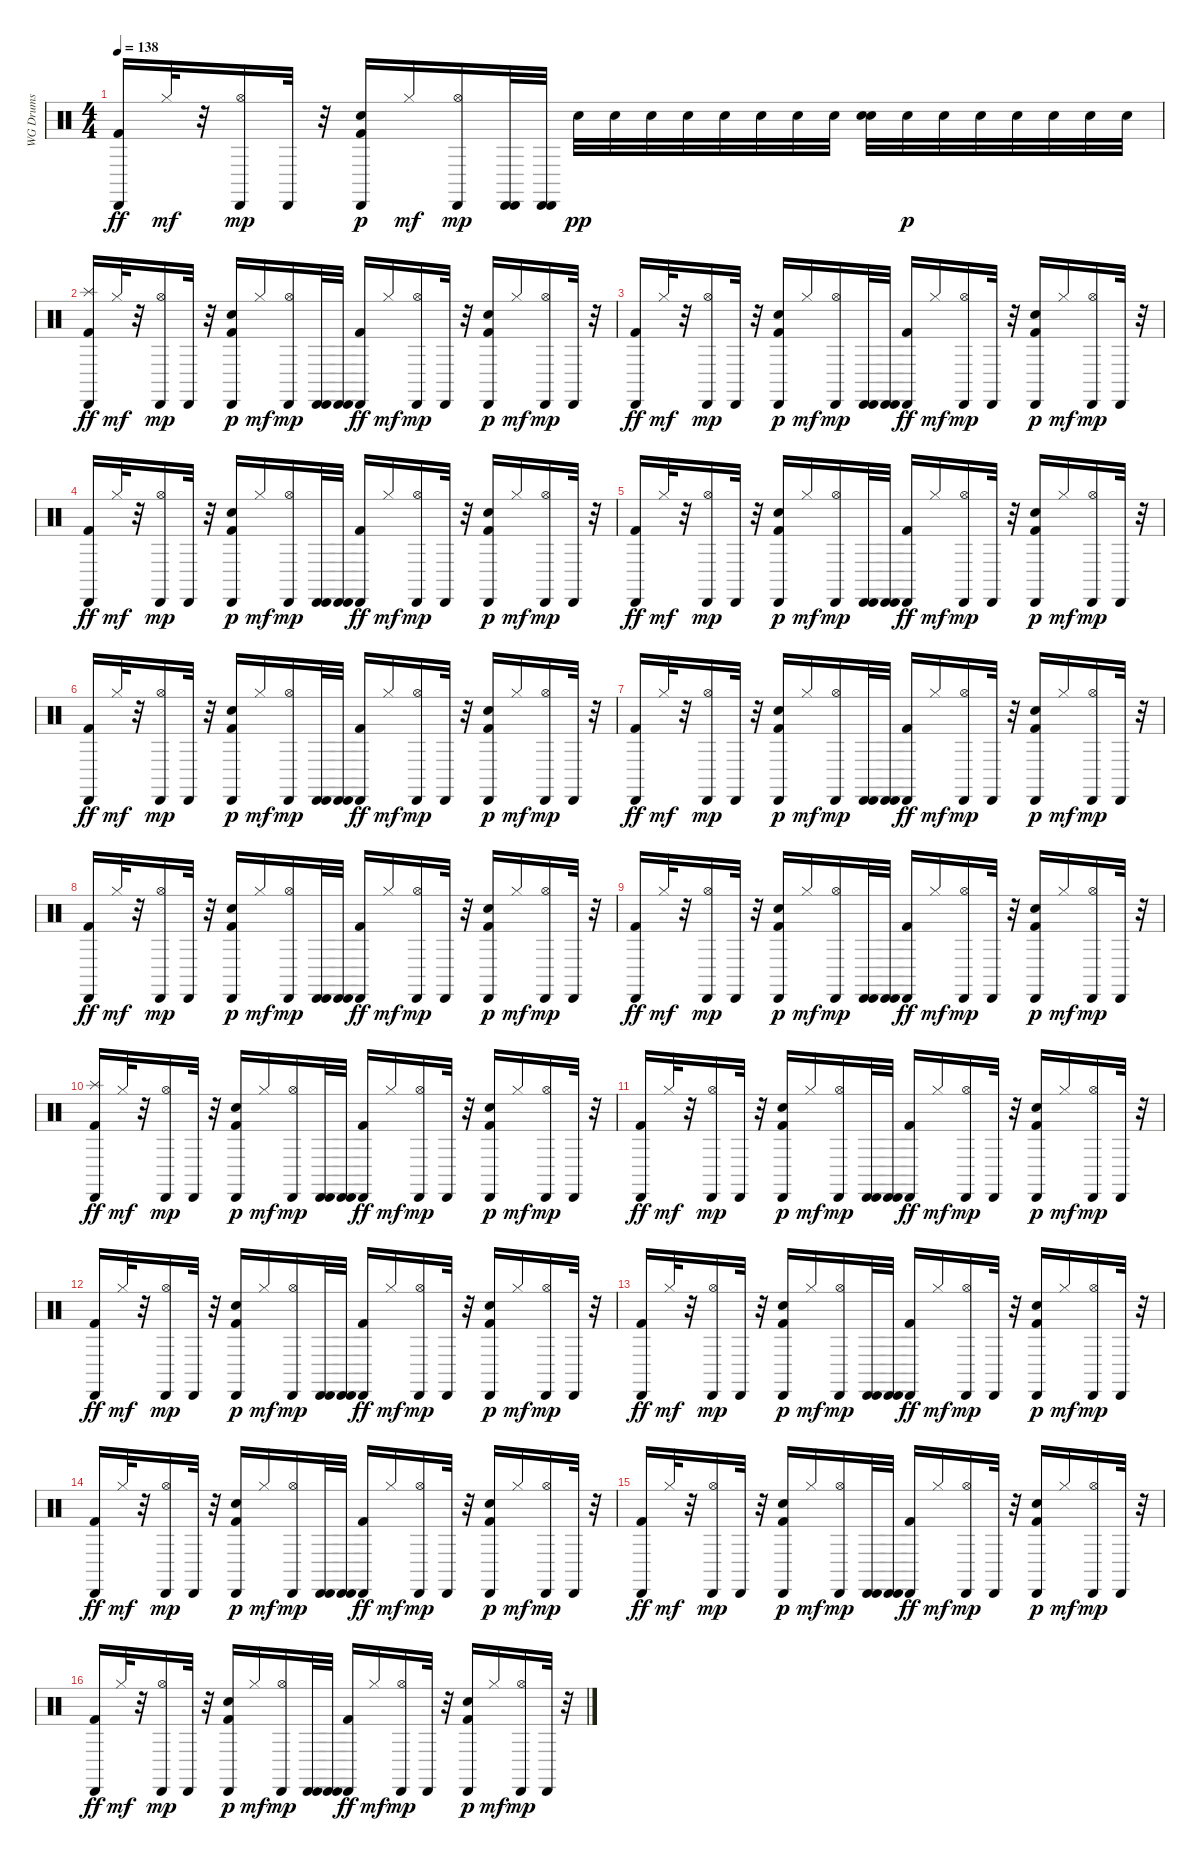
\track ("WG Drums" "WG Drums") {instrument percussion}
\staff {score}
\articulation defaults
\ts (4 4)
\tempo 138
\clef neutral
\ks c
("Cabasa (hit)" "Kick (hit) 2").16{dy ff} "Hi-Hat (closed)".32{dy mf} r.32 ("Cabasa (hit)" "Hi-Hat (open)").16{dy mp} "Cabasa (hit)".32 r.32 ("Cabasa (hit)" "Kick (hit) 2" "Hand Clap (hit)").16{dy p} "Hi-Hat (closed)".16{dy mf} ("Cabasa (hit)" "Hi-Hat (open)").16{dy mp} ("Cabasa (hit)" "Cabasa (hit)").32 ("Cabasa (hit)" "Cabasa (hit)").32 "Electric Snare (hit)".32{dy pp} "Electric Snare (hit)".32 "Electric Snare (hit)".32 "Electric Snare (hit)".32 "Electric Snare (hit)".32 "Electric Snare (hit)".32 "Electric Snare (hit)".32 "Electric Snare (hit)".32 ("Hand Clap (hit)" "Electric Snare (hit)").32 "Electric Snare (hit)".32{dy p} "Electric Snare (hit)".32 "Electric Snare (hit)".32 "Electric Snare (hit)".32 "Electric Snare (hit)".32 "Electric Snare (hit)".32 "Electric Snare (hit)".32 |
("Splash (hit)" "Cabasa (hit)" "Kick (hit) 2").16{dy ff} "Hi-Hat (closed)".32{dy mf} r.32 ("Cabasa (hit)" "Hi-Hat (open)").16{dy mp} "Cabasa (hit)".32 r.32 ("Cabasa (hit)" "Kick (hit) 2" "Hand Clap (hit)").16{dy p} "Hi-Hat (closed)".16{dy mf} ("Cabasa (hit)" "Hi-Hat (open)").16{dy mp} ("Cabasa (hit)" "Cabasa (hit)").32 ("Cabasa (hit)" "Cabasa (hit)").32 ("Cabasa (hit)" "Kick (hit) 2").16{dy ff} "Hi-Hat (closed)".16{dy mf} ("Cabasa (hit)" "Hi-Hat (open)").16{dy mp} "Cabasa (hit)".32 r.32 ("Cabasa (hit)" "Kick (hit) 2" "Hand Clap (hit)").16{dy p} "Hi-Hat (closed)".16{dy mf} ("Cabasa (hit)" "Hi-Hat (open)").16{dy mp} "Cabasa (hit)".32 r.32 |
("Cabasa (hit)" "Kick (hit) 2").16{dy ff} "Hi-Hat (closed)".32{dy mf} r.32 ("Cabasa (hit)" "Hi-Hat (open)").16{dy mp} "Cabasa (hit)".32 r.32 ("Cabasa (hit)" "Kick (hit) 2" "Hand Clap (hit)").16{dy p} "Hi-Hat (closed)".16{dy mf} ("Cabasa (hit)" "Hi-Hat (open)").16{dy mp} ("Cabasa (hit)" "Cabasa (hit)").32 ("Cabasa (hit)" "Cabasa (hit)").32 ("Cabasa (hit)" "Kick (hit) 2").16{dy ff} "Hi-Hat (closed)".16{dy mf} ("Cabasa (hit)" "Hi-Hat (open)").16{dy mp} "Cabasa (hit)".32 r.32 ("Cabasa (hit)" "Kick (hit) 2" "Hand Clap (hit)").16{dy p} "Hi-Hat (closed)".16{dy mf} ("Cabasa (hit)" "Hi-Hat (open)").16{dy mp} "Cabasa (hit)".32 r.32 |
("Cabasa (hit)" "Kick (hit) 2").16{dy ff} "Hi-Hat (closed)".32{dy mf} r.32 ("Cabasa (hit)" "Hi-Hat (open)").16{dy mp} "Cabasa (hit)".32 r.32 ("Cabasa (hit)" "Kick (hit) 2" "Hand Clap (hit)").16{dy p} "Hi-Hat (closed)".16{dy mf} ("Cabasa (hit)" "Hi-Hat (open)").16{dy mp} ("Cabasa (hit)" "Cabasa (hit)").32 ("Cabasa (hit)" "Cabasa (hit)").32 ("Cabasa (hit)" "Kick (hit) 2").16{dy ff} "Hi-Hat (closed)".16{dy mf} ("Cabasa (hit)" "Hi-Hat (open)").16{dy mp} "Cabasa (hit)".32 r.32 ("Cabasa (hit)" "Kick (hit) 2" "Hand Clap (hit)").16{dy p} "Hi-Hat (closed)".16{dy mf} ("Cabasa (hit)" "Hi-Hat (open)").16{dy mp} "Cabasa (hit)".32 r.32 |
("Cabasa (hit)" "Kick (hit) 2").16{dy ff} "Hi-Hat (closed)".32{dy mf} r.32 ("Cabasa (hit)" "Hi-Hat (open)").16{dy mp} "Cabasa (hit)".32 r.32 ("Cabasa (hit)" "Kick (hit) 2" "Hand Clap (hit)").16{dy p} "Hi-Hat (closed)".16{dy mf} ("Cabasa (hit)" "Hi-Hat (open)").16{dy mp} ("Cabasa (hit)" "Cabasa (hit)").32 ("Cabasa (hit)" "Cabasa (hit)").32 ("Cabasa (hit)" "Kick (hit) 2").16{dy ff} "Hi-Hat (closed)".16{dy mf} ("Cabasa (hit)" "Hi-Hat (open)").16{dy mp} "Cabasa (hit)".32 r.32 ("Cabasa (hit)" "Kick (hit) 2" "Hand Clap (hit)").16{dy p} "Hi-Hat (closed)".16{dy mf} ("Cabasa (hit)" "Hi-Hat (open)").16{dy mp} "Cabasa (hit)".32 r.32 |
("Cabasa (hit)" "Kick (hit) 2").16{dy ff} "Hi-Hat (closed)".32{dy mf} r.32 ("Cabasa (hit)" "Hi-Hat (open)").16{dy mp} "Cabasa (hit)".32 r.32 ("Cabasa (hit)" "Kick (hit) 2" "Hand Clap (hit)").16{dy p} "Hi-Hat (closed)".16{dy mf} ("Cabasa (hit)" "Hi-Hat (open)").16{dy mp} ("Cabasa (hit)" "Cabasa (hit)").32 ("Cabasa (hit)" "Cabasa (hit)").32 ("Cabasa (hit)" "Kick (hit) 2").16{dy ff} "Hi-Hat (closed)".16{dy mf} ("Cabasa (hit)" "Hi-Hat (open)").16{dy mp} "Cabasa (hit)".32 r.32 ("Cabasa (hit)" "Kick (hit) 2" "Hand Clap (hit)").16{dy p} "Hi-Hat (closed)".16{dy mf} ("Cabasa (hit)" "Hi-Hat (open)").16{dy mp} "Cabasa (hit)".32 r.32 |
("Cabasa (hit)" "Kick (hit) 2").16{dy ff} "Hi-Hat (closed)".32{dy mf} r.32 ("Cabasa (hit)" "Hi-Hat (open)").16{dy mp} "Cabasa (hit)".32 r.32 ("Cabasa (hit)" "Kick (hit) 2" "Hand Clap (hit)").16{dy p} "Hi-Hat (closed)".16{dy mf} ("Cabasa (hit)" "Hi-Hat (open)").16{dy mp} ("Cabasa (hit)" "Cabasa (hit)").32 ("Cabasa (hit)" "Cabasa (hit)").32 ("Cabasa (hit)" "Kick (hit) 2").16{dy ff} "Hi-Hat (closed)".16{dy mf} ("Cabasa (hit)" "Hi-Hat (open)").16{dy mp} "Cabasa (hit)".32 r.32 ("Cabasa (hit)" "Kick (hit) 2" "Hand Clap (hit)").16{dy p} "Hi-Hat (closed)".16{dy mf} ("Cabasa (hit)" "Hi-Hat (open)").16{dy mp} "Cabasa (hit)".32 r.32 |
("Cabasa (hit)" "Kick (hit) 2").16{dy ff} "Hi-Hat (closed)".32{dy mf} r.32 ("Cabasa (hit)" "Hi-Hat (open)").16{dy mp} "Cabasa (hit)".32 r.32 ("Cabasa (hit)" "Kick (hit) 2" "Hand Clap (hit)").16{dy p} "Hi-Hat (closed)".16{dy mf} ("Cabasa (hit)" "Hi-Hat (open)").16{dy mp} ("Cabasa (hit)" "Cabasa (hit)").32 ("Cabasa (hit)" "Cabasa (hit)").32 ("Cabasa (hit)" "Kick (hit) 2").16{dy ff} "Hi-Hat (closed)".16{dy mf} ("Cabasa (hit)" "Hi-Hat (open)").16{dy mp} "Cabasa (hit)".32 r.32 ("Cabasa (hit)" "Kick (hit) 2" "Hand Clap (hit)").16{dy p} "Hi-Hat (closed)".16{dy mf} ("Cabasa (hit)" "Hi-Hat (open)").16{dy mp} "Cabasa (hit)".32 r.32 |
("Cabasa (hit)" "Kick (hit) 2").16{dy ff} "Hi-Hat (closed)".32{dy mf} r.32 ("Cabasa (hit)" "Hi-Hat (open)").16{dy mp} "Cabasa (hit)".32 r.32 ("Cabasa (hit)" "Kick (hit) 2" "Hand Clap (hit)").16{dy p} "Hi-Hat (closed)".16{dy mf} ("Cabasa (hit)" "Hi-Hat (open)").16{dy mp} ("Cabasa (hit)" "Cabasa (hit)").32 ("Cabasa (hit)" "Cabasa (hit)").32 ("Cabasa (hit)" "Kick (hit) 2").16{dy ff} "Hi-Hat (closed)".16{dy mf} ("Cabasa (hit)" "Hi-Hat (open)").16{dy mp} "Cabasa (hit)".32 r.32 ("Cabasa (hit)" "Kick (hit) 2" "Hand Clap (hit)").16{dy p} "Hi-Hat (closed)".16{dy mf} ("Cabasa (hit)" "Hi-Hat (open)").16{dy mp} "Cabasa (hit)".32 r.32 |
("Splash (hit)" "Cabasa (hit)" "Kick (hit) 2").16{dy ff} "Hi-Hat (closed)".32{dy mf} r.32 ("Cabasa (hit)" "Hi-Hat (open)").16{dy mp} "Cabasa (hit)".32 r.32 ("Cabasa (hit)" "Kick (hit) 2" "Hand Clap (hit)").16{dy p} "Hi-Hat (closed)".16{dy mf} ("Cabasa (hit)" "Hi-Hat (open)").16{dy mp} ("Cabasa (hit)" "Cabasa (hit)").32 ("Cabasa (hit)" "Cabasa (hit)").32 ("Cabasa (hit)" "Kick (hit) 2").16{dy ff} "Hi-Hat (closed)".16{dy mf} ("Cabasa (hit)" "Hi-Hat (open)").16{dy mp} "Cabasa (hit)".32 r.32 ("Cabasa (hit)" "Kick (hit) 2" "Hand Clap (hit)").16{dy p} "Hi-Hat (closed)".16{dy mf} ("Cabasa (hit)" "Hi-Hat (open)").16{dy mp} "Cabasa (hit)".32 r.32 |
("Cabasa (hit)" "Kick (hit) 2").16{dy ff} "Hi-Hat (closed)".32{dy mf} r.32 ("Cabasa (hit)" "Hi-Hat (open)").16{dy mp} "Cabasa (hit)".32 r.32 ("Cabasa (hit)" "Kick (hit) 2" "Hand Clap (hit)").16{dy p} "Hi-Hat (closed)".16{dy mf} ("Cabasa (hit)" "Hi-Hat (open)").16{dy mp} ("Cabasa (hit)" "Cabasa (hit)").32 ("Cabasa (hit)" "Cabasa (hit)").32 ("Cabasa (hit)" "Kick (hit) 2").16{dy ff} "Hi-Hat (closed)".16{dy mf} ("Cabasa (hit)" "Hi-Hat (open)").16{dy mp} "Cabasa (hit)".32 r.32 ("Cabasa (hit)" "Kick (hit) 2" "Hand Clap (hit)").16{dy p} "Hi-Hat (closed)".16{dy mf} ("Cabasa (hit)" "Hi-Hat (open)").16{dy mp} "Cabasa (hit)".32 r.32 |
("Cabasa (hit)" "Kick (hit) 2").16{dy ff} "Hi-Hat (closed)".32{dy mf} r.32 ("Cabasa (hit)" "Hi-Hat (open)").16{dy mp} "Cabasa (hit)".32 r.32 ("Cabasa (hit)" "Kick (hit) 2" "Hand Clap (hit)").16{dy p} "Hi-Hat (closed)".16{dy mf} ("Cabasa (hit)" "Hi-Hat (open)").16{dy mp} ("Cabasa (hit)" "Cabasa (hit)").32 ("Cabasa (hit)" "Cabasa (hit)").32 ("Cabasa (hit)" "Kick (hit) 2").16{dy ff} "Hi-Hat (closed)".16{dy mf} ("Cabasa (hit)" "Hi-Hat (open)").16{dy mp} "Cabasa (hit)".32 r.32 ("Cabasa (hit)" "Kick (hit) 2" "Hand Clap (hit)").16{dy p} "Hi-Hat (closed)".16{dy mf} ("Cabasa (hit)" "Hi-Hat (open)").16{dy mp} "Cabasa (hit)".32 r.32 |
("Cabasa (hit)" "Kick (hit) 2").16{dy ff} "Hi-Hat (closed)".32{dy mf} r.32 ("Cabasa (hit)" "Hi-Hat (open)").16{dy mp} "Cabasa (hit)".32 r.32 ("Cabasa (hit)" "Kick (hit) 2" "Hand Clap (hit)").16{dy p} "Hi-Hat (closed)".16{dy mf} ("Cabasa (hit)" "Hi-Hat (open)").16{dy mp} ("Cabasa (hit)" "Cabasa (hit)").32 ("Cabasa (hit)" "Cabasa (hit)").32 ("Cabasa (hit)" "Kick (hit) 2").16{dy ff} "Hi-Hat (closed)".16{dy mf} ("Cabasa (hit)" "Hi-Hat (open)").16{dy mp} "Cabasa (hit)".32 r.32 ("Cabasa (hit)" "Kick (hit) 2" "Hand Clap (hit)").16{dy p} "Hi-Hat (closed)".16{dy mf} ("Cabasa (hit)" "Hi-Hat (open)").16{dy mp} "Cabasa (hit)".32 r.32 |
("Cabasa (hit)" "Kick (hit) 2").16{dy ff} "Hi-Hat (closed)".32{dy mf} r.32 ("Cabasa (hit)" "Hi-Hat (open)").16{dy mp} "Cabasa (hit)".32 r.32 ("Cabasa (hit)" "Kick (hit) 2" "Hand Clap (hit)").16{dy p} "Hi-Hat (closed)".16{dy mf} ("Cabasa (hit)" "Hi-Hat (open)").16{dy mp} ("Cabasa (hit)" "Cabasa (hit)").32 ("Cabasa (hit)" "Cabasa (hit)").32 ("Cabasa (hit)" "Kick (hit) 2").16{dy ff} "Hi-Hat (closed)".16{dy mf} ("Cabasa (hit)" "Hi-Hat (open)").16{dy mp} "Cabasa (hit)".32 r.32 ("Cabasa (hit)" "Kick (hit) 2" "Hand Clap (hit)").16{dy p} "Hi-Hat (closed)".16{dy mf} ("Cabasa (hit)" "Hi-Hat (open)").16{dy mp} "Cabasa (hit)".32 r.32 |
("Cabasa (hit)" "Kick (hit) 2").16{dy ff} "Hi-Hat (closed)".32{dy mf} r.32 ("Cabasa (hit)" "Hi-Hat (open)").16{dy mp} "Cabasa (hit)".32 r.32 ("Cabasa (hit)" "Kick (hit) 2" "Hand Clap (hit)").16{dy p} "Hi-Hat (closed)".16{dy mf} ("Cabasa (hit)" "Hi-Hat (open)").16{dy mp} ("Cabasa (hit)" "Cabasa (hit)").32 ("Cabasa (hit)" "Cabasa (hit)").32 ("Cabasa (hit)" "Kick (hit) 2").16{dy ff} "Hi-Hat (closed)".16{dy mf} ("Cabasa (hit)" "Hi-Hat (open)").16{dy mp} "Cabasa (hit)".32 r.32 ("Cabasa (hit)" "Kick (hit) 2" "Hand Clap (hit)").16{dy p} "Hi-Hat (closed)".16{dy mf} ("Cabasa (hit)" "Hi-Hat (open)").16{dy mp} "Cabasa (hit)".32 r.32 |
("Cabasa (hit)" "Kick (hit) 2").16{dy ff} "Hi-Hat (closed)".32{dy mf} r.32 ("Cabasa (hit)" "Hi-Hat (open)").16{dy mp} "Cabasa (hit)".32 r.32 ("Cabasa (hit)" "Kick (hit) 2" "Hand Clap (hit)").16{dy p} "Hi-Hat (closed)".16{dy mf} ("Cabasa (hit)" "Hi-Hat (open)").16{dy mp} ("Cabasa (hit)" "Cabasa (hit)").32 ("Cabasa (hit)" "Cabasa (hit)").32 ("Cabasa (hit)" "Kick (hit) 2").16{dy ff} "Hi-Hat (closed)".16{dy mf} ("Cabasa (hit)" "Hi-Hat (open)").16{dy mp} "Cabasa (hit)".32 r.32 ("Cabasa (hit)" "Kick (hit) 2" "Hand Clap (hit)").16{dy p} "Hi-Hat (closed)".16{dy mf} ("Cabasa (hit)" "Hi-Hat (open)").16{dy mp} "Cabasa (hit)".32 r.32
